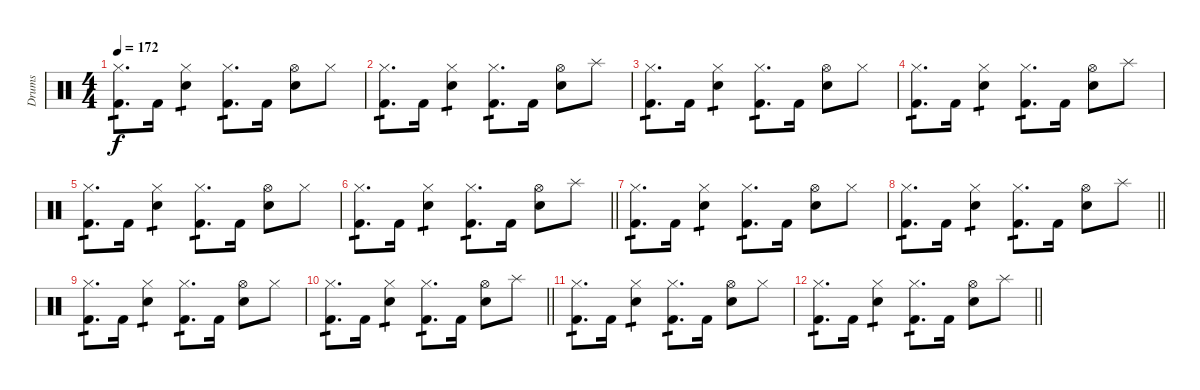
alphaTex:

\track ("Drums" "Drums") {instrument percussion}
\staff {score}
\articulation defaults
\ts (4 4)
\tempo 172
\clef neutral
\ks c
("Hi-Hat (closed)" "Kick (hit) 2").8{d tp 1 dy f} "Kick (hit) 2".16 ("Hi-Hat (closed)" "Electric Snare (hit)").4{tp 1} ("Hi-Hat (closed)" "Kick (hit) 2").8{d tp 1} "Kick (hit) 2".16 ("Hi-Hat (open)" "Electric Snare (hit)").8 "Hi-Hat (closed)".8 |
("Hi-Hat (closed)" "Kick (hit) 2").8{d tp 1} "Kick (hit) 2".16 ("Hi-Hat (closed)" "Electric Snare (hit)").4{tp 1} ("Hi-Hat (closed)" "Kick (hit) 2").8{d tp 1} "Kick (hit) 2".16 ("Hi-Hat (open)" "Electric Snare (hit)").8 "Splash (hit)".8 |
("Hi-Hat (closed)" "Kick (hit) 2").8{d tp 1} "Kick (hit) 2".16 ("Hi-Hat (closed)" "Electric Snare (hit)").4{tp 1} ("Hi-Hat (closed)" "Kick (hit) 2").8{d tp 1} "Kick (hit) 2".16 ("Hi-Hat (open)" "Electric Snare (hit)").8 "Hi-Hat (closed)".8 |
("Hi-Hat (closed)" "Kick (hit) 2").8{d tp 1} "Kick (hit) 2".16 ("Hi-Hat (closed)" "Electric Snare (hit)").4{tp 1} ("Hi-Hat (closed)" "Kick (hit) 2").8{d tp 1} "Kick (hit) 2".16 ("Hi-Hat (open)" "Electric Snare (hit)").8 "Splash (hit)".8 |
("Hi-Hat (closed)" "Kick (hit) 2").8{d tp 1 volume 7} "Kick (hit) 2".16 ("Hi-Hat (closed)" "Electric Snare (hit)").4{tp 1} ("Hi-Hat (closed)" "Kick (hit) 2").8{d tp 1} "Kick (hit) 2".16 ("Hi-Hat (open)" "Electric Snare (hit)").8 "Hi-Hat (closed)".8 |
\barLineRight lightlight
("Hi-Hat (closed)" "Kick (hit) 2").8{d tp 1} "Kick (hit) 2".16 ("Hi-Hat (closed)" "Electric Snare (hit)").4{tp 1} ("Hi-Hat (closed)" "Kick (hit) 2").8{d tp 1} "Kick (hit) 2".16 ("Hi-Hat (open)" "Electric Snare (hit)").8 "Splash (hit)".8 |
("Hi-Hat (closed)" "Kick (hit) 2").8{d tp 1} "Kick (hit) 2".16 ("Hi-Hat (closed)" "Electric Snare (hit)").4{tp 1} ("Hi-Hat (closed)" "Kick (hit) 2").8{d tp 1} "Kick (hit) 2".16 ("Hi-Hat (open)" "Electric Snare (hit)").8 "Hi-Hat (closed)".8 |
\barLineRight lightlight
("Hi-Hat (closed)" "Kick (hit) 2").8{d tp 1} "Kick (hit) 2".16 ("Hi-Hat (closed)" "Electric Snare (hit)").4{tp 1} ("Hi-Hat (closed)" "Kick (hit) 2").8{d tp 1} "Kick (hit) 2".16 ("Hi-Hat (open)" "Electric Snare (hit)").8 "Splash (hit)".8 |
("Hi-Hat (closed)" "Kick (hit) 2").8{d tp 1 volume 0} "Kick (hit) 2".16 ("Hi-Hat (closed)" "Electric Snare (hit)").4{tp 1} ("Hi-Hat (closed)" "Kick (hit) 2").8{d tp 1} "Kick (hit) 2".16 ("Hi-Hat (open)" "Electric Snare (hit)").8 "Hi-Hat (closed)".8 |
\barLineRight lightlight
("Hi-Hat (closed)" "Kick (hit) 2").8{d tp 1} "Kick (hit) 2".16 ("Hi-Hat (closed)" "Electric Snare (hit)").4{tp 1} ("Hi-Hat (closed)" "Kick (hit) 2").8{d tp 1} "Kick (hit) 2".16 ("Hi-Hat (open)" "Electric Snare (hit)").8 "Splash (hit)".8 |
("Hi-Hat (closed)" "Kick (hit) 2").8{d tp 1} "Kick (hit) 2".16 ("Hi-Hat (closed)" "Electric Snare (hit)").4{tp 1} ("Hi-Hat (closed)" "Kick (hit) 2").8{d tp 1} "Kick (hit) 2".16 ("Hi-Hat (open)" "Electric Snare (hit)").8 "Hi-Hat (closed)".8 |
\barLineRight lightlight
("Hi-Hat (closed)" "Kick (hit) 2").8{d tp 1} "Kick (hit) 2".16 ("Hi-Hat (closed)" "Electric Snare (hit)").4{tp 1} ("Hi-Hat (closed)" "Kick (hit) 2").8{d tp 1} "Kick (hit) 2".16 ("Hi-Hat (open)" "Electric Snare (hit)").8 "Splash (hit)".8
